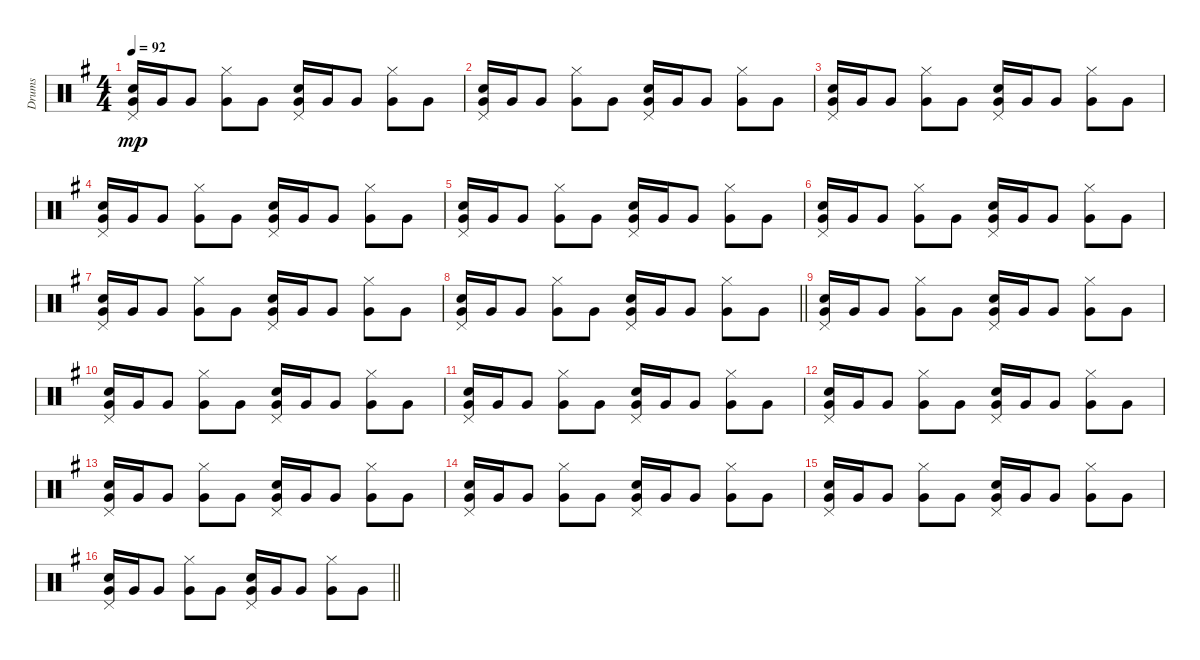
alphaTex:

\track ("Drums" "Drums") {instrument percussion}
\staff {score}
\articulation defaults
\ts (4 4)
\tempo 92
\clef neutral
\ks g
("Pedal Hi-Hat (hit)" "Very Low Tom (hit)" "Snare (hit) 2").16{dy mp} "Very Low Tom (hit)".16 "Very Low Tom (hit)".8 ("Hi-Hat (closed)" "Very Low Tom (hit)").8 "Very Low Tom (hit)".8 ("Pedal Hi-Hat (hit)" "Very Low Tom (hit)" "Snare (hit) 2").16 "Very Low Tom (hit)".16 "Very Low Tom (hit)".8 ("Hi-Hat (closed)" "Very Low Tom (hit)").8 "Very Low Tom (hit)".8 |
("Pedal Hi-Hat (hit)" "Very Low Tom (hit)" "Snare (hit) 2").16 "Very Low Tom (hit)".16 "Very Low Tom (hit)".8 ("Hi-Hat (closed)" "Very Low Tom (hit)").8 "Very Low Tom (hit)".8 ("Pedal Hi-Hat (hit)" "Very Low Tom (hit)" "Snare (hit) 2").16 "Very Low Tom (hit)".16 "Very Low Tom (hit)".8 ("Hi-Hat (closed)" "Very Low Tom (hit)").8 "Very Low Tom (hit)".8 |
("Pedal Hi-Hat (hit)" "Very Low Tom (hit)" "Snare (hit) 2").16 "Very Low Tom (hit)".16 "Very Low Tom (hit)".8 ("Hi-Hat (closed)" "Very Low Tom (hit)").8 "Very Low Tom (hit)".8 ("Pedal Hi-Hat (hit)" "Very Low Tom (hit)" "Snare (hit) 2").16 "Very Low Tom (hit)".16 "Very Low Tom (hit)".8 ("Hi-Hat (closed)" "Very Low Tom (hit)").8 "Very Low Tom (hit)".8 |
("Pedal Hi-Hat (hit)" "Very Low Tom (hit)" "Snare (hit) 2").16 "Very Low Tom (hit)".16 "Very Low Tom (hit)".8 ("Hi-Hat (closed)" "Very Low Tom (hit)").8 "Very Low Tom (hit)".8 ("Pedal Hi-Hat (hit)" "Very Low Tom (hit)" "Snare (hit) 2").16 "Very Low Tom (hit)".16 "Very Low Tom (hit)".8 ("Hi-Hat (closed)" "Very Low Tom (hit)").8 "Very Low Tom (hit)".8 |
("Pedal Hi-Hat (hit)" "Very Low Tom (hit)" "Snare (hit) 2").16 "Very Low Tom (hit)".16 "Very Low Tom (hit)".8 ("Hi-Hat (closed)" "Very Low Tom (hit)").8 "Very Low Tom (hit)".8 ("Pedal Hi-Hat (hit)" "Very Low Tom (hit)" "Snare (hit) 2").16 "Very Low Tom (hit)".16 "Very Low Tom (hit)".8 ("Hi-Hat (closed)" "Very Low Tom (hit)").8 "Very Low Tom (hit)".8 |
("Pedal Hi-Hat (hit)" "Very Low Tom (hit)" "Snare (hit) 2").16 "Very Low Tom (hit)".16 "Very Low Tom (hit)".8 ("Hi-Hat (closed)" "Very Low Tom (hit)").8 "Very Low Tom (hit)".8 ("Pedal Hi-Hat (hit)" "Very Low Tom (hit)" "Snare (hit) 2").16 "Very Low Tom (hit)".16 "Very Low Tom (hit)".8 ("Hi-Hat (closed)" "Very Low Tom (hit)").8 "Very Low Tom (hit)".8 |
("Pedal Hi-Hat (hit)" "Very Low Tom (hit)" "Snare (hit) 2").16 "Very Low Tom (hit)".16 "Very Low Tom (hit)".8 ("Hi-Hat (closed)" "Very Low Tom (hit)").8 "Very Low Tom (hit)".8 ("Pedal Hi-Hat (hit)" "Very Low Tom (hit)" "Snare (hit) 2").16 "Very Low Tom (hit)".16 "Very Low Tom (hit)".8 ("Hi-Hat (closed)" "Very Low Tom (hit)").8 "Very Low Tom (hit)".8 |
\barLineRight lightlight
("Pedal Hi-Hat (hit)" "Very Low Tom (hit)" "Snare (hit) 2").16 "Very Low Tom (hit)".16 "Very Low Tom (hit)".8 ("Hi-Hat (closed)" "Very Low Tom (hit)").8 "Very Low Tom (hit)".8 ("Pedal Hi-Hat (hit)" "Very Low Tom (hit)" "Snare (hit) 2").16 "Very Low Tom (hit)".16 "Very Low Tom (hit)".8 ("Hi-Hat (closed)" "Very Low Tom (hit)").8 "Very Low Tom (hit)".8 |
("Pedal Hi-Hat (hit)" "Very Low Tom (hit)" "Snare (hit) 2").16 "Very Low Tom (hit)".16 "Very Low Tom (hit)".8 ("Hi-Hat (closed)" "Very Low Tom (hit)").8 "Very Low Tom (hit)".8 ("Pedal Hi-Hat (hit)" "Very Low Tom (hit)" "Snare (hit) 2").16 "Very Low Tom (hit)".16 "Very Low Tom (hit)".8 ("Hi-Hat (closed)" "Very Low Tom (hit)").8 "Very Low Tom (hit)".8 |
("Pedal Hi-Hat (hit)" "Very Low Tom (hit)" "Snare (hit) 2").16 "Very Low Tom (hit)".16 "Very Low Tom (hit)".8 ("Hi-Hat (closed)" "Very Low Tom (hit)").8 "Very Low Tom (hit)".8 ("Pedal Hi-Hat (hit)" "Very Low Tom (hit)" "Snare (hit) 2").16 "Very Low Tom (hit)".16 "Very Low Tom (hit)".8 ("Hi-Hat (closed)" "Very Low Tom (hit)").8 "Very Low Tom (hit)".8 |
("Pedal Hi-Hat (hit)" "Very Low Tom (hit)" "Snare (hit) 2").16 "Very Low Tom (hit)".16 "Very Low Tom (hit)".8 ("Hi-Hat (closed)" "Very Low Tom (hit)").8 "Very Low Tom (hit)".8 ("Pedal Hi-Hat (hit)" "Very Low Tom (hit)" "Snare (hit) 2").16 "Very Low Tom (hit)".16 "Very Low Tom (hit)".8 ("Hi-Hat (closed)" "Very Low Tom (hit)").8 "Very Low Tom (hit)".8 |
("Pedal Hi-Hat (hit)" "Very Low Tom (hit)" "Snare (hit) 2").16 "Very Low Tom (hit)".16 "Very Low Tom (hit)".8 ("Hi-Hat (closed)" "Very Low Tom (hit)").8 "Very Low Tom (hit)".8 ("Pedal Hi-Hat (hit)" "Very Low Tom (hit)" "Snare (hit) 2").16 "Very Low Tom (hit)".16 "Very Low Tom (hit)".8 ("Hi-Hat (closed)" "Very Low Tom (hit)").8 "Very Low Tom (hit)".8 |
("Pedal Hi-Hat (hit)" "Very Low Tom (hit)" "Snare (hit) 2").16 "Very Low Tom (hit)".16 "Very Low Tom (hit)".8 ("Hi-Hat (closed)" "Very Low Tom (hit)").8 "Very Low Tom (hit)".8 ("Pedal Hi-Hat (hit)" "Very Low Tom (hit)" "Snare (hit) 2").16 "Very Low Tom (hit)".16 "Very Low Tom (hit)".8 ("Hi-Hat (closed)" "Very Low Tom (hit)").8 "Very Low Tom (hit)".8 |
("Pedal Hi-Hat (hit)" "Very Low Tom (hit)" "Snare (hit) 2").16 "Very Low Tom (hit)".16 "Very Low Tom (hit)".8 ("Hi-Hat (closed)" "Very Low Tom (hit)").8 "Very Low Tom (hit)".8 ("Pedal Hi-Hat (hit)" "Very Low Tom (hit)" "Snare (hit) 2").16 "Very Low Tom (hit)".16 "Very Low Tom (hit)".8 ("Hi-Hat (closed)" "Very Low Tom (hit)").8 "Very Low Tom (hit)".8 |
("Pedal Hi-Hat (hit)" "Very Low Tom (hit)" "Snare (hit) 2").16 "Very Low Tom (hit)".16 "Very Low Tom (hit)".8 ("Hi-Hat (closed)" "Very Low Tom (hit)").8 "Very Low Tom (hit)".8 ("Pedal Hi-Hat (hit)" "Very Low Tom (hit)" "Snare (hit) 2").16 "Very Low Tom (hit)".16 "Very Low Tom (hit)".8 ("Hi-Hat (closed)" "Very Low Tom (hit)").8 "Very Low Tom (hit)".8 |
\barLineRight lightlight
("Pedal Hi-Hat (hit)" "Very Low Tom (hit)" "Snare (hit) 2").16 "Very Low Tom (hit)".16 "Very Low Tom (hit)".8 ("Hi-Hat (closed)" "Very Low Tom (hit)").8 "Very Low Tom (hit)".8 ("Pedal Hi-Hat (hit)" "Very Low Tom (hit)" "Snare (hit) 2").16 "Very Low Tom (hit)".16 "Very Low Tom (hit)".8 ("Hi-Hat (closed)" "Very Low Tom (hit)").8 "Very Low Tom (hit)".8
